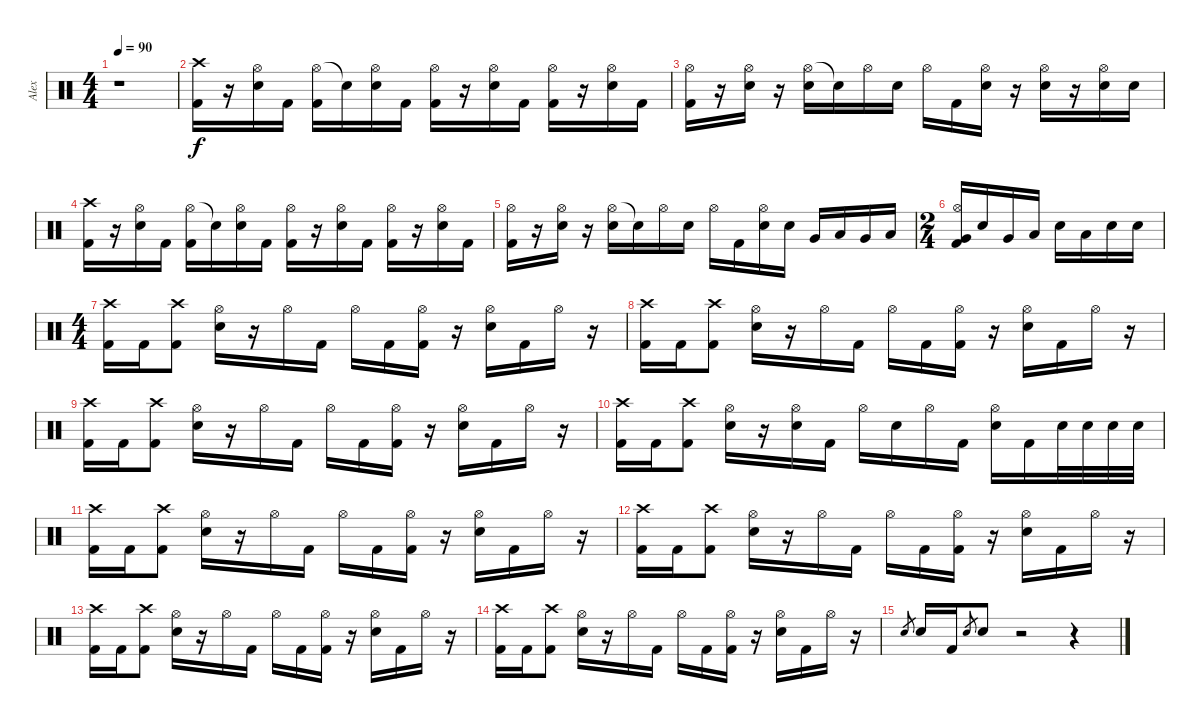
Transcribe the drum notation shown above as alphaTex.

\track ("Alex" "Alex") {instrument percussion}
\staff {score}
\articulation defaults
\ts (4 4)
\tempo 90
\clef neutral
\ks c
r.1{dy f} |
("Crash high (hit)" "Kick (hit) 2").16 r.16 ("Hi-Hat (open)" "Electric Snare (hit)").16 "Kick (hit) 2".16 ("Hi-Hat (open)" "Kick (hit) 2").16 "Snare (hit)"{t}.16 ("Hi-Hat (open)" "Electric Snare (hit)").16 "Kick (hit) 2".16 ("Hi-Hat (open)" "Kick (hit) 2").16 r.16 ("Hi-Hat (open)" "Electric Snare (hit)").16 "Kick (hit) 2".16 ("Hi-Hat (open)" "Kick (hit) 2").16 r.16 ("Hi-Hat (open)" "Electric Snare (hit)").16 "Kick (hit) 2".16 |
("Hi-Hat (open)" "Kick (hit) 2").16 r.16 ("Hi-Hat (open)" "Electric Snare (hit)").16 r.16 ("Hi-Hat (open)" "Electric Snare (hit)").16 "Snare (hit)"{t}.16 "Hi-Hat (open)".16 "Electric Snare (hit)".16 "Hi-Hat (open)".16 "Kick (hit) 2".16 ("Hi-Hat (open)" "Electric Snare (hit)").16 r.16 ("Hi-Hat (open)" "Electric Snare (hit)").16 r.16 ("Hi-Hat (open)" "Electric Snare (hit)").16 "Electric Snare (hit)".16 |
("Crash high (hit)" "Kick (hit) 2").16 r.16 ("Hi-Hat (open)" "Electric Snare (hit)").16 "Kick (hit) 2".16 ("Hi-Hat (open)" "Kick (hit) 2").16 "Snare (hit)"{t}.16 ("Hi-Hat (open)" "Electric Snare (hit)").16 "Kick (hit) 2".16 ("Hi-Hat (open)" "Kick (hit) 2").16 r.16 ("Hi-Hat (open)" "Electric Snare (hit)").16 "Kick (hit) 2".16 ("Hi-Hat (open)" "Kick (hit) 2").16 r.16 ("Hi-Hat (open)" "Electric Snare (hit)").16 "Kick (hit) 2".16 |
("Hi-Hat (open)" "Kick (hit) 2").16 r.16 ("Hi-Hat (open)" "Electric Snare (hit)").16 r.16 ("Hi-Hat (open)" "Electric Snare (hit)").16 "Snare (hit)"{t}.16 "Hi-Hat (open)".16 "Electric Snare (hit)".16 "Hi-Hat (open)".16 "Kick (hit) 2".16 ("Hi-Hat (open)" "Electric Snare (hit)").16 "Electric Snare (hit)".16 "Very Low Tom (hit)".16 "Low Tom (hit)".16 "Very Low Tom (hit)".16 "Low Tom (hit)".16 |
\ts (2 4)
("Hi-Hat (open)" "Very Low Tom (hit)" "Kick (hit) 2").16 "Electric Snare (hit)".16 "Very Low Tom (hit)".16 "Low Tom (hit)".16 "Electric Snare (hit)".16 "Low Tom (hit)".16 "Electric Snare (hit)".16 "Electric Snare (hit)".16 |
\ts (4 4)
("Crash high (hit)" "Kick (hit) 2").16 "Kick (hit) 2".16 ("Crash high (hit)" "Kick (hit) 2").8 ("Hi-Hat (open)" "Electric Snare (hit)").16 r.16 "Hi-Hat (open)".16 "Kick (hit) 2".16 "Hi-Hat (open)".16 "Kick (hit) 2".16 ("Hi-Hat (open)" "Kick (hit) 2").16 r.16 ("Hi-Hat (open)" "Electric Snare (hit)").16 "Kick (hit) 2".16 "Hi-Hat (open)".16 r.16 |
("Crash high (hit)" "Kick (hit) 2").16 "Kick (hit) 2".16 ("Crash high (hit)" "Kick (hit) 2").8 ("Hi-Hat (open)" "Electric Snare (hit)").16 r.16 "Hi-Hat (open)".16 "Kick (hit) 2".16 "Hi-Hat (open)".16 "Kick (hit) 2".16 ("Hi-Hat (open)" "Kick (hit) 2").16 r.16 ("Hi-Hat (open)" "Electric Snare (hit)").16 "Kick (hit) 2".16 "Hi-Hat (open)".16 r.16 |
("Crash high (hit)" "Kick (hit) 2").16 "Kick (hit) 2".16 ("Crash high (hit)" "Kick (hit) 2").8 ("Hi-Hat (open)" "Electric Snare (hit)").16 r.16 "Hi-Hat (open)".16 "Kick (hit) 2".16 "Hi-Hat (open)".16 "Kick (hit) 2".16 ("Hi-Hat (open)" "Kick (hit) 2").16 r.16 ("Hi-Hat (open)" "Electric Snare (hit)").16 "Kick (hit) 2".16 "Hi-Hat (open)".16 r.16 |
("Crash high (hit)" "Kick (hit) 2").16 "Kick (hit) 2".16 ("Crash high (hit)" "Kick (hit) 2").8 ("Hi-Hat (open)" "Electric Snare (hit)").16 r.16 ("Hi-Hat (open)" "Electric Snare (hit)").16 "Kick (hit) 2".16 "Hi-Hat (open)".16 "Electric Snare (hit)".16 "Hi-Hat (open)".16 "Kick (hit) 2".16 ("Hi-Hat (open)" "Electric Snare (hit)").16 "Kick (hit) 2".16 "Electric Snare (hit)".32 "Electric Snare (hit)".32 "Electric Snare (hit)".32 "Electric Snare (hit)".32 |
("Crash high (hit)" "Kick (hit) 2").16 "Kick (hit) 2".16 ("Crash high (hit)" "Kick (hit) 2").8 ("Hi-Hat (open)" "Electric Snare (hit)").16 r.16 "Hi-Hat (open)".16 "Kick (hit) 2".16 "Hi-Hat (open)".16 "Kick (hit) 2".16 ("Hi-Hat (open)" "Kick (hit) 2").16 r.16 ("Hi-Hat (open)" "Electric Snare (hit)").16 "Kick (hit) 2".16 "Hi-Hat (open)".16 r.16 |
("Crash high (hit)" "Kick (hit) 2").16 "Kick (hit) 2".16 ("Crash high (hit)" "Kick (hit) 2").8 ("Hi-Hat (open)" "Electric Snare (hit)").16 r.16 "Hi-Hat (open)".16 "Kick (hit) 2".16 "Hi-Hat (open)".16 "Kick (hit) 2".16 ("Hi-Hat (open)" "Kick (hit) 2").16 r.16 ("Hi-Hat (open)" "Electric Snare (hit)").16 "Kick (hit) 2".16 "Hi-Hat (open)".16 r.16 |
("Crash high (hit)" "Kick (hit) 2").16 "Kick (hit) 2".16 ("Crash high (hit)" "Kick (hit) 2").8 ("Hi-Hat (open)" "Electric Snare (hit)").16 r.16 "Hi-Hat (open)".16 "Kick (hit) 2".16 "Hi-Hat (open)".16 "Kick (hit) 2".16 ("Hi-Hat (open)" "Kick (hit) 2").16 r.16 ("Hi-Hat (open)" "Electric Snare (hit)").16 "Kick (hit) 2".16 "Hi-Hat (open)".16 r.16 |
("Crash high (hit)" "Kick (hit) 2").16 "Kick (hit) 2".16 ("Crash high (hit)" "Kick (hit) 2").8 ("Hi-Hat (open)" "Electric Snare (hit)").16 r.16 "Hi-Hat (open)".16 "Kick (hit) 2".16 "Hi-Hat (open)".16 "Kick (hit) 2".16 ("Hi-Hat (open)" "Kick (hit) 2").16 r.16 ("Hi-Hat (open)" "Electric Snare (hit)").16 "Kick (hit) 2".16 "Hi-Hat (open)".16 r.16 |
"Electric Snare (hit)".8{gr} "Electric Snare (hit)".16 "Kick (hit) 2".16 "Electric Snare (hit)".8{gr} "Electric Snare (hit)".8 r.2 r.4
